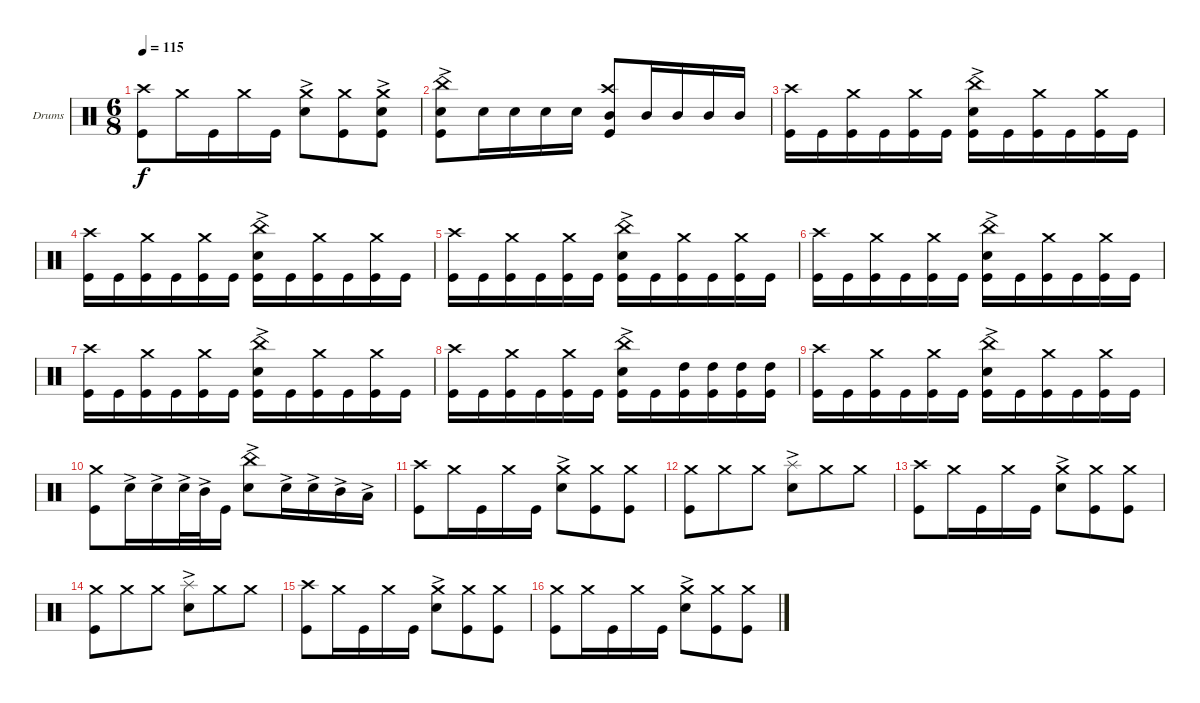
\bracketExtendMode groupsimilarinstruments
\firstSystemTrackNameOrientation horizontal
\otherSystemsTrackNameOrientation horizontal
\track ("Drumkit" "Drums") {instrument percussion}
\staff {score}
\articulation defaults
\ts (6 8)
\tempo 115
\clef neutral
\ks c
("Kick (hit)" "Crash high (hit)").8{dy f} "Crash medium (hit)".16 "Kick (hit)".16 "Crash medium (hit)".16 "Kick (hit)".16 ("Snare (hit) 2"{ac} "Crash medium (hit)").8 ("Kick (hit)" "Crash medium (hit)").8 ("Kick (hit)" "Crash medium (hit)" "Snare (hit) 2"{ac}).8 |
("Kick (hit)" "China (hit)" "Snare (hit) 2"{ac}).8 "Snare (hit) 2".16 "Snare (hit) 2".16 "Snare (hit) 2".16 "Snare (hit) 2".16 ("Mid Tom (hit)" "Kick (hit)" "Crash high (hit)").8 "Mid Tom (hit)".16 "Mid Tom (hit)".16 "Mid Tom (hit)".16 "Mid Tom (hit)".16 |
("Kick (hit)" "Crash high (hit)").16 "Kick (hit)".16 ("Kick (hit)" "Crash medium (hit)").16 "Kick (hit)".16 ("Kick (hit)" "Crash medium (hit)").16 "Kick (hit)".16 ("Kick (hit)" "China (hit)" "Snare (hit) 2"{ac}).16 "Kick (hit)".16 ("Kick (hit)" "Crash medium (hit)").16 "Kick (hit)".16 ("Kick (hit)" "Crash medium (hit)").16 "Kick (hit)".16 |
("Kick (hit)" "Crash high (hit)").16 "Kick (hit)".16 ("Kick (hit)" "Crash medium (hit)").16 "Kick (hit)".16 ("Kick (hit)" "Crash medium (hit)").16 "Kick (hit)".16 ("Kick (hit)" "China (hit)" "Snare (hit) 2"{ac}).16 "Kick (hit)".16 ("Kick (hit)" "Crash medium (hit)").16 "Kick (hit)".16 ("Kick (hit)" "Crash medium (hit)").16 "Kick (hit)".16 |
("Kick (hit)" "Crash high (hit)").16 "Kick (hit)".16 ("Kick (hit)" "Crash medium (hit)").16 "Kick (hit)".16 ("Kick (hit)" "Crash medium (hit)").16 "Kick (hit)".16 ("Kick (hit)" "China (hit)" "Snare (hit) 2"{ac}).16 "Kick (hit)".16 ("Kick (hit)" "Crash medium (hit)").16 "Kick (hit)".16 ("Kick (hit)" "Crash medium (hit)").16 "Kick (hit)".16 |
("Kick (hit)" "Crash high (hit)").16 "Kick (hit)".16 ("Kick (hit)" "Crash medium (hit)").16 "Kick (hit)".16 ("Kick (hit)" "Crash medium (hit)").16 "Kick (hit)".16 ("Kick (hit)" "China (hit)" "Snare (hit) 2"{ac}).16 "Kick (hit)".16 ("Kick (hit)" "Crash medium (hit)").16 "Kick (hit)".16 ("Kick (hit)" "Crash medium (hit)").16 "Kick (hit)".16 |
("Kick (hit)" "Crash high (hit)").16 "Kick (hit)".16 ("Kick (hit)" "Crash medium (hit)").16 "Kick (hit)".16 ("Kick (hit)" "Crash medium (hit)").16 "Kick (hit)".16 ("Kick (hit)" "China (hit)" "Snare (hit) 2"{ac}).16 "Kick (hit)".16 ("Kick (hit)" "Crash medium (hit)").16 "Kick (hit)".16 ("Kick (hit)" "Crash medium (hit)").16 "Kick (hit)".16 |
("Kick (hit)" "Crash high (hit)").16 "Kick (hit)".16 ("Kick (hit)" "Crash medium (hit)").16 "Kick (hit)".16 ("Kick (hit)" "Crash medium (hit)").16 "Kick (hit)".16 ("Kick (hit)" "China (hit)" "Snare (hit) 2"{ac}).16 "Kick (hit)".16 ("Kick (hit)" "High Tom (hit)").16 ("Kick (hit)" "High Tom (hit)").16 ("Kick (hit)" "High Tom (hit)").16 ("Kick (hit)" "High Tom (hit)").16 |
("Kick (hit)" "Crash high (hit)").16 "Kick (hit)".16 ("Kick (hit)" "Crash medium (hit)").16 "Kick (hit)".16 ("Kick (hit)" "Crash medium (hit)").16 "Kick (hit)".16 ("Kick (hit)" "China (hit)" "Snare (hit) 2"{ac}).16 "Kick (hit)".16 ("Kick (hit)" "Crash medium (hit)").16 "Kick (hit)".16 ("Kick (hit)" "Crash medium (hit)").16 "Kick (hit)".16 |
("Kick (hit)" "Crash medium (hit)").8 "Snare (hit) 2"{ac}.16 "Snare (hit) 2"{ac}.16 "Snare (hit) 2"{ac}.32 "Mid Tom (hit)"{ac}.32 "Kick (hit)".16 ("Snare (hit) 2"{ac} "China (hit)").8 "Snare (hit) 2"{ac}.16 "Snare (hit) 2"{ac}.16 "Mid Tom (hit)"{ac}.16 "Low Tom (hit)"{ac}.16 |
("Kick (hit)" "Crash high (hit)").8 "Crash medium (hit)".16 "Kick (hit)".16 "Crash medium (hit)".16 "Kick (hit)".16 ("Snare (hit) 2"{ac} "Crash medium (hit)").8 ("Kick (hit)" "Crash medium (hit)").8 ("Kick (hit)" "Crash medium (hit)").8 |
("Kick (hit)" "Crash medium (hit)").8 "Crash medium (hit)".8 "Crash medium (hit)".8 ("Snare (hit) 2"{ac} "Splash (hit)").8 "Crash medium (hit)".8 "Crash medium (hit)".8 |
("Kick (hit)" "Crash high (hit)").8 "Crash medium (hit)".16 "Kick (hit)".16 "Crash medium (hit)".16 "Kick (hit)".16 ("Snare (hit) 2"{ac} "Crash medium (hit)").8 ("Kick (hit)" "Crash medium (hit)").8 ("Kick (hit)" "Crash medium (hit)").8 |
("Kick (hit)" "Crash medium (hit)").8 "Crash medium (hit)".8 "Crash medium (hit)".8 ("Snare (hit) 2"{ac} "Splash (hit)").8 "Crash medium (hit)".8 "Crash medium (hit)".8 |
("Kick (hit)" "Crash high (hit)").8 "Crash medium (hit)".16 "Kick (hit)".16 "Crash medium (hit)".16 "Kick (hit)".16 ("Snare (hit) 2"{ac} "Crash medium (hit)").8 ("Kick (hit)" "Crash medium (hit)").8 ("Kick (hit)" "Crash medium (hit)").8 |
("Kick (hit)" "Crash medium (hit)").8 "Crash medium (hit)".16 "Kick (hit)".16 "Crash medium (hit)".16 "Kick (hit)".16 ("Snare (hit) 2"{ac} "Crash medium (hit)").8 ("Kick (hit)" "Crash medium (hit)").8 ("Kick (hit)" "Crash medium (hit)").8
